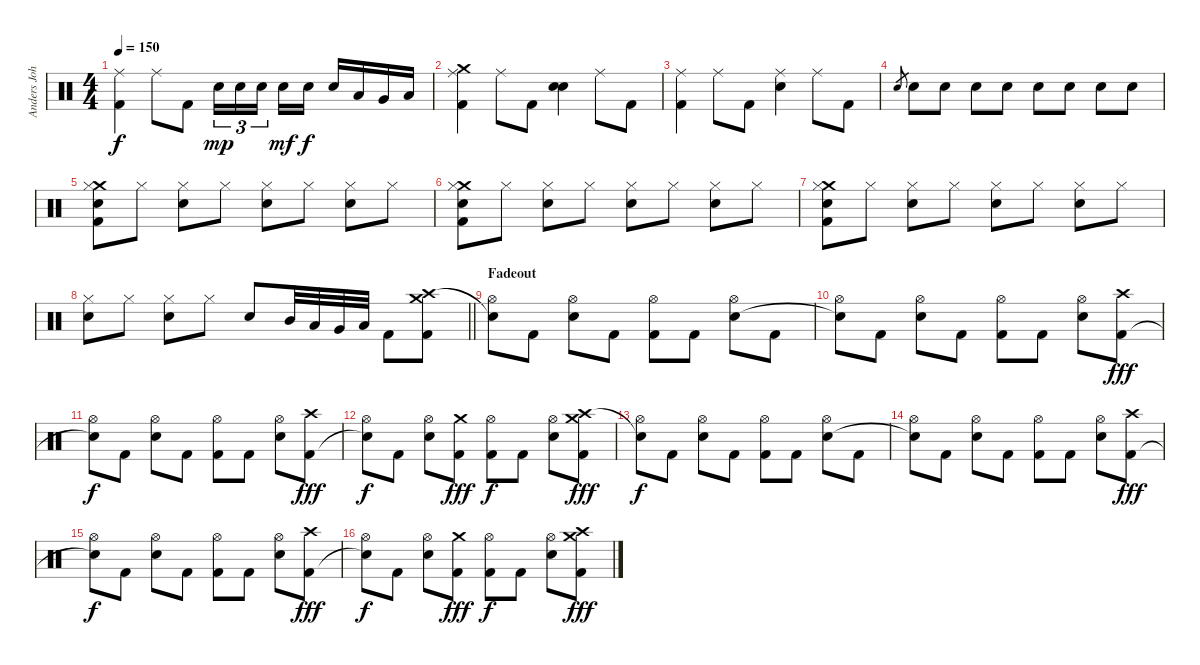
\track ("Anders Johansson" "Anders Joh") {instrument percussion}
\staff {score}
\articulation defaults
\ts (4 4)
\tempo 150
\clef neutral
\ks c
("Ride (middle)" "Kick (hit) 2").4{dy f} "Ride (middle)".8 "Kick (hit) 2".8 "Snare (hit) 2".16{tu (3 2) dy mp} "Snare (hit) 2".16{tu (3 2)} "Snare (hit) 2".16{tu (3 2) beam splitsecondary} "Snare (hit) 2".16{dy mf} "Snare (hit) 2".16{dy f} "Snare (hit) 2".16 "Low Tom (hit)".16 "Very Low Tom (hit)".16 "Low Floor Tom (hit)".16 |
("Crash medium (hit)" "Ride (middle)" "Kick (hit) 2").4 "Ride (middle)".8 "Kick (hit) 2".8 ("Snare (hit)" "Snare (hit) 2").4 "Ride (middle)".8 "Kick (hit) 2".8 |
("Ride (middle)" "Kick (hit) 2").4 "Ride (middle)".8 "Kick (hit) 2".8 ("Ride (middle)" "Snare (hit) 2").4 "Ride (middle)".8 "Kick (hit) 2".8 |
"Snare (hit) 2".8{gr} "Snare (hit) 2".8 "Snare (hit) 2".8 "Snare (hit) 2".8 "Snare (hit) 2".8 "Snare (hit) 2".8 "Snare (hit) 2".8 "Snare (hit) 2".8 "Snare (hit) 2".8 |
("Crash medium (hit)" "Hi-Hat (closed)" "Snare (hit) 2" "Kick (hit) 2").8 "Hi-Hat (closed)".8 ("Hi-Hat (closed)" "Snare (hit) 2").8 "Hi-Hat (closed)".8 ("Hi-Hat (closed)" "Snare (hit) 2").8 "Hi-Hat (closed)".8 ("Hi-Hat (closed)" "Snare (hit) 2").8 "Hi-Hat (closed)".8 |
("Crash medium (hit)" "Hi-Hat (closed)" "Snare (hit) 2" "Kick (hit) 2").8 "Hi-Hat (closed)".8 ("Hi-Hat (closed)" "Snare (hit) 2").8 "Hi-Hat (closed)".8 ("Hi-Hat (closed)" "Snare (hit) 2").8 "Hi-Hat (closed)".8 ("Hi-Hat (closed)" "Snare (hit) 2").8 "Hi-Hat (closed)".8 |
("Crash medium (hit)" "Hi-Hat (closed)" "Snare (hit) 2" "Kick (hit) 2").8 "Hi-Hat (closed)".8 ("Hi-Hat (closed)" "Snare (hit) 2").8 "Hi-Hat (closed)".8 ("Hi-Hat (closed)" "Snare (hit) 2").8 "Hi-Hat (closed)".8 ("Hi-Hat (closed)" "Snare (hit) 2").8 "Hi-Hat (closed)".8 |
\barLineRight lightlight
("Hi-Hat (closed)" "Snare (hit) 2").8 "Hi-Hat (closed)".8 ("Hi-Hat (closed)" "Snare (hit) 2").8 "Hi-Hat (closed)".8 "Snare (hit) 2".8 "Mid Tom (hit)".32 "Low Tom (hit)".32 "Very Low Tom (hit)".32 "Low Floor Tom (hit)".32 "Kick (hit) 2".8 ("Crash medium (hit)" "Crash high (hit)" "Kick (hit) 2").8 |
\section ("" "Fadeout")
("Hi-Hat (open)" "Snare (hit)"{t}).8 "Kick (hit) 2".8 ("Hi-Hat (open)" "Electric Snare (hit)").8 "Kick (hit) 2".8 ("Hi-Hat (open)" "Kick (hit) 2").8 "Kick (hit) 2".8 ("Hi-Hat (open)" "Electric Snare (hit)").8 "Kick (hit) 2".8 |
("Hi-Hat (open)" "Snare (hit)"{t}).8 "Kick (hit) 2".8 ("Hi-Hat (open)" "Electric Snare (hit)").8 "Kick (hit) 2".8 ("Hi-Hat (open)" "Kick (hit) 2").8 "Kick (hit) 2".8 ("Hi-Hat (open)" "Electric Snare (hit)").8 ("Crash high (hit)" "Kick (hit) 2").8{dy fff} |
("Hi-Hat (open)" "Snare (hit)"{t}).8{dy f} "Kick (hit) 2".8 ("Hi-Hat (open)" "Electric Snare (hit)").8 "Kick (hit) 2".8 ("Hi-Hat (open)" "Kick (hit) 2").8 "Kick (hit) 2".8 ("Hi-Hat (open)" "Electric Snare (hit)").8 ("Crash high (hit)" "Kick (hit) 2").8{dy fff} |
("Hi-Hat (open)" "Snare (hit)"{t}).8{dy f} "Kick (hit) 2".8 ("Hi-Hat (open)" "Electric Snare (hit)").8 ("Crash medium (hit)" "Kick (hit) 2").8{dy fff} ("Hi-Hat (open)" "Kick (hit) 2").8{dy f} "Kick (hit) 2".8 ("Hi-Hat (open)" "Electric Snare (hit)").8 ("Crash medium (hit)" "Crash high (hit)" "Kick (hit) 2").8{dy fff} |
("Hi-Hat (open)" "Snare (hit)"{t}).8{dy f} "Kick (hit) 2".8 ("Hi-Hat (open)" "Electric Snare (hit)").8 "Kick (hit) 2".8 ("Hi-Hat (open)" "Kick (hit) 2").8 "Kick (hit) 2".8 ("Hi-Hat (open)" "Electric Snare (hit)").8 "Kick (hit) 2".8 |
("Hi-Hat (open)" "Snare (hit)"{t}).8 "Kick (hit) 2".8 ("Hi-Hat (open)" "Electric Snare (hit)").8 "Kick (hit) 2".8 ("Hi-Hat (open)" "Kick (hit) 2").8 "Kick (hit) 2".8 ("Hi-Hat (open)" "Electric Snare (hit)").8 ("Crash high (hit)" "Kick (hit) 2").8{dy fff} |
("Hi-Hat (open)" "Snare (hit)"{t}).8{dy f} "Kick (hit) 2".8 ("Hi-Hat (open)" "Electric Snare (hit)").8 "Kick (hit) 2".8 ("Hi-Hat (open)" "Kick (hit) 2").8 "Kick (hit) 2".8 ("Hi-Hat (open)" "Electric Snare (hit)").8 ("Crash high (hit)" "Kick (hit) 2").8{dy fff} |
("Hi-Hat (open)" "Snare (hit)"{t}).8{dy f} "Kick (hit) 2".8 ("Hi-Hat (open)" "Electric Snare (hit)").8 ("Crash medium (hit)" "Kick (hit) 2").8{dy fff} ("Hi-Hat (open)" "Kick (hit) 2").8{dy f} "Kick (hit) 2".8 ("Hi-Hat (open)" "Electric Snare (hit)").8 ("Crash medium (hit)" "Crash high (hit)" "Kick (hit) 2").8{dy fff}
